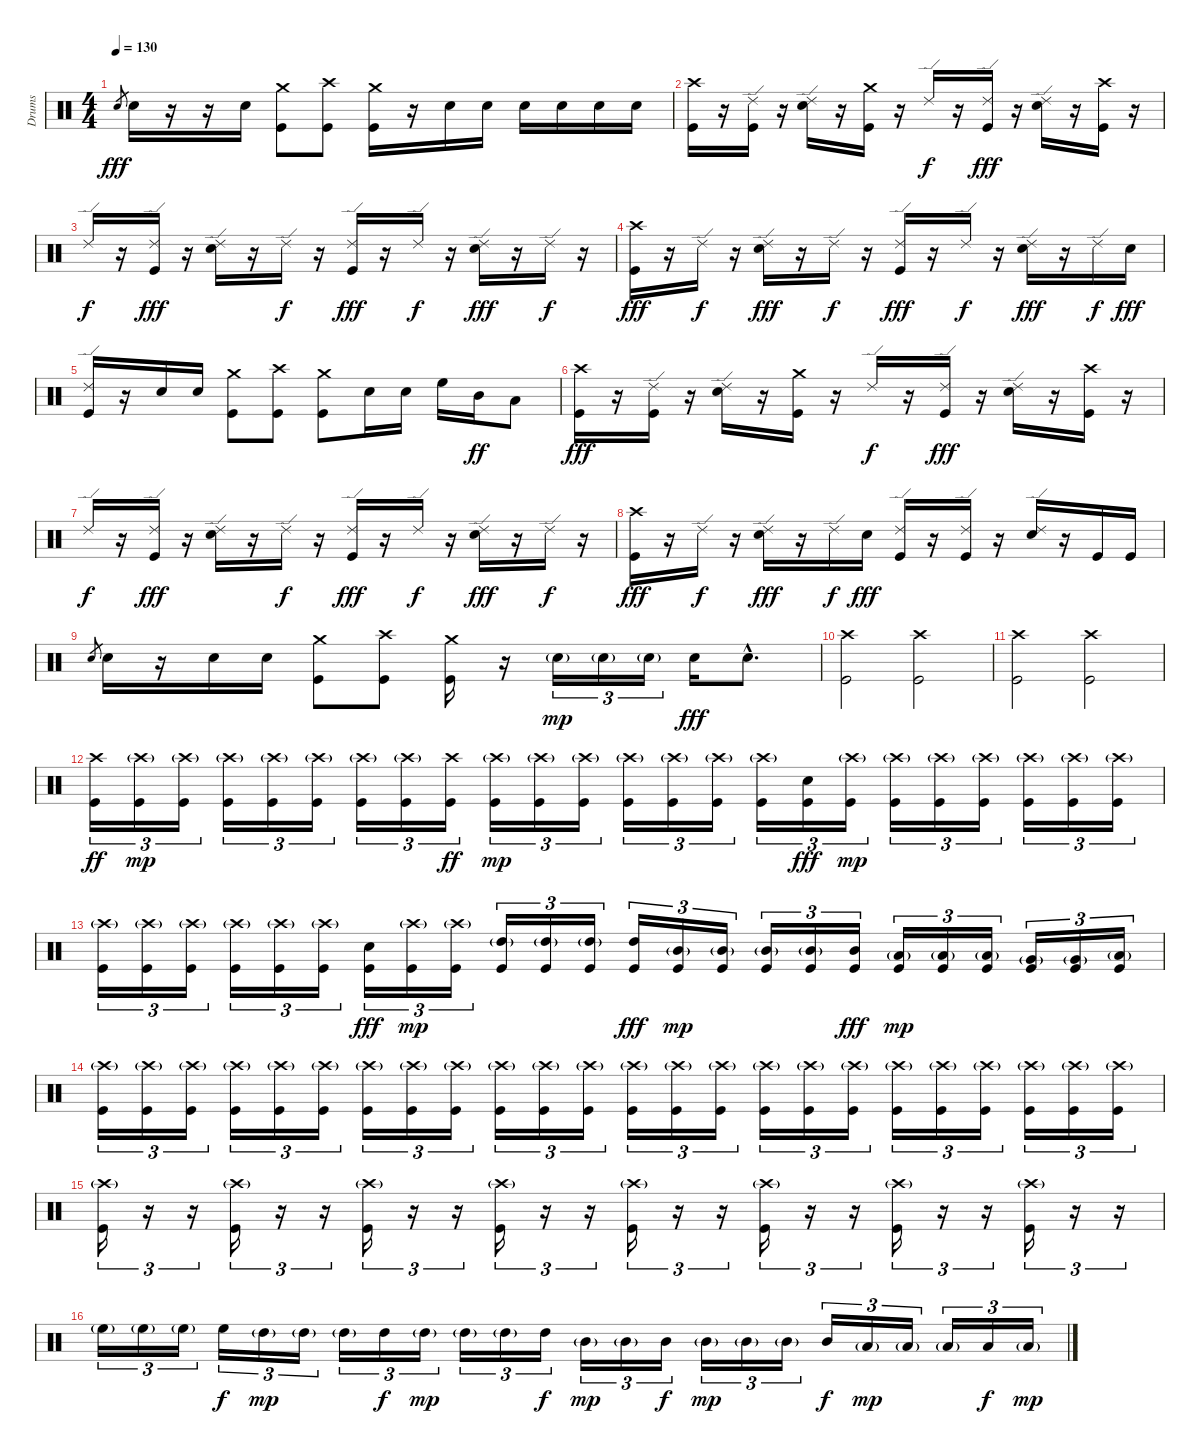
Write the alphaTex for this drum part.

\track ("Drums" "Drums") {instrument percussion}
\staff {score}
\articulation defaults
\ts (4 4)
\tempo 130
\clef neutral
\ks c "Electric Snare (hit)".8{gr dy fff} "Electric Snare (hit)".16
r.16 r.16 "Electric Snare (hit)".16 ("Kick (hit)" "Crash medium (hit)").8 ("Kick (hit)" "Crash high (hit)").8 ("Kick (hit)" "Crash medium (hit)").16 r.16 "Electric Snare (hit)".16 "Electric Snare (hit)".16 "Electric Snare (hit)".16 "Electric Snare (hit)".16 "Electric Snare (hit)".16 "Electric Snare (hit)".16 |
("Kick (hit)" "Crash high (hit)").16 r.16 ("Kick (hit)" "Ride (edge) 2").16 r.16 ("Electric Snare (hit)" "Ride (edge) 2").16 r.16 ("Kick (hit)" "Crash medium (hit)").16 r.16 "Ride (edge) 2".16{dy f} r.16 ("Kick (hit)" "Ride (edge) 2").16{dy fff} r.16 ("Electric Snare (hit)" "Ride (edge) 2").16 r.16 ("Kick (hit)" "Crash high (hit)").16 r.16 |
"Ride (edge) 2".16{dy f} r.16 ("Kick (hit)" "Ride (edge) 2").16{dy fff} r.16 ("Electric Snare (hit)" "Ride (edge) 2").16 r.16 "Ride (edge) 2".16{dy f} r.16 ("Kick (hit)" "Ride (edge) 2").16{dy fff} r.16 "Ride (edge) 2".16{dy f} r.16 ("Electric Snare (hit)" "Ride (edge) 2").16{dy fff} r.16 "Ride (edge) 2".16{dy f} r.16 |
("Kick (hit)" "Crash high (hit)").16{dy fff} r.16 "Ride (edge) 2".16{dy f} r.16 ("Electric Snare (hit)" "Ride (edge) 2").16{dy fff} r.16 "Ride (edge) 2".16{dy f} r.16 ("Kick (hit)" "Ride (edge) 2").16{dy fff} r.16 "Ride (edge) 2".16{dy f} r.16 ("Electric Snare (hit)" "Ride (edge) 2").16{dy fff} r.16 "Ride (edge) 2".16{dy f} "Electric Snare (hit)".16{dy fff} |
("Kick (hit)" "Ride (edge) 2").16 r.16 "Electric Snare (hit)".16 "Electric Snare (hit)".16 ("Kick (hit)" "Crash medium (hit)").8 ("Kick (hit)" "Crash high (hit)").8 ("Kick (hit)" "Crash medium (hit)").8 "Electric Snare (hit)".16 "Electric Snare (hit)".16 "High Floor Tom (hit)".16 "Mid Tom (hit)".16{dy ff} "Low Tom (hit)".8 |
("Kick (hit)" "Crash high (hit)").16{dy fff} r.16 ("Kick (hit)" "Ride (edge) 2").16 r.16 ("Electric Snare (hit)" "Ride (edge) 2").16 r.16 ("Kick (hit)" "Crash medium (hit)").16 r.16 "Ride (edge) 2".16{dy f} r.16 ("Kick (hit)" "Ride (edge) 2").16{dy fff} r.16 ("Electric Snare (hit)" "Ride (edge) 2").16 r.16 ("Kick (hit)" "Crash high (hit)").16 r.16 |
"Ride (edge) 2".16{dy f} r.16 ("Kick (hit)" "Ride (edge) 2").16{dy fff} r.16 ("Electric Snare (hit)" "Ride (edge) 2").16 r.16 "Ride (edge) 2".16{dy f} r.16 ("Kick (hit)" "Ride (edge) 2").16{dy fff} r.16 "Ride (edge) 2".16{dy f} r.16 ("Electric Snare (hit)" "Ride (edge) 2").16{dy fff} r.16 "Ride (edge) 2".16{dy f} r.16 |
("Kick (hit)" "Crash high (hit)").16{dy fff} r.16 "Ride (edge) 2".16{dy f} r.16 ("Electric Snare (hit)" "Ride (edge) 2").16{dy fff} r.16 "Ride (edge) 2".16{dy f} "Electric Snare (hit)".16{dy fff} ("Kick (hit)" "Ride (edge) 2").16 r.16 ("Kick (hit)" "Ride (edge) 2").16 r.16 ("Electric Snare (hit)" "Ride (edge) 2").16 r.16 "Kick (hit)".16 "Kick (hit)".16 |
"Electric Snare (hit)".8{gr} "Electric Snare (hit)".16 r.16 "Electric Snare (hit)".16 "Electric Snare (hit)".16 ("Kick (hit)" "Crash medium (hit)").8 ("Kick (hit)" "Crash high (hit)").8 ("Kick (hit)" "Crash medium (hit)").16 r.16 "Electric Snare (hit)"{g}.16{tu (3 2) dy mp} "Electric Snare (hit)"{g}.16{tu (3 2)} "Electric Snare (hit)"{g}.16{tu (3 2)} "Electric Snare (hit)".16{dy fff} "Electric Snare (hit)"{hac}.8{d} |
("Kick (hit)" "Crash high (hit)").2 ("Kick (hit)" "Crash high (hit)").2 |
("Kick (hit)" "Crash high (hit)").2 ("Kick (hit)" "Crash high (hit)").2 |
("Kick (hit)" "Crash high (hit)").16{tu (3 2) dy ff} ("Kick (hit)" "Crash high (hit)"{g}).16{tu (3 2) dy mp} ("Kick (hit)" "Crash high (hit)"{g}).16{tu (3 2)} ("Kick (hit)" "Crash high (hit)"{g}).16{tu (3 2)} ("Kick (hit)" "Crash high (hit)"{g}).16{tu (3 2)} ("Kick (hit)" "Crash high (hit)"{g}).16{tu (3 2)} ("Kick (hit)" "Crash high (hit)"{g}).16{tu (3 2)} ("Kick (hit)" "Crash high (hit)"{g}).16{tu (3 2)} ("Kick (hit)" "Crash high (hit)").16{tu (3 2) dy ff} ("Kick (hit)" "Crash high (hit)"{g}).16{tu (3 2) dy mp} ("Kick (hit)" "Crash high (hit)"{g}).16{tu (3 2)} ("Kick (hit)" "Crash high (hit)"{g}).16{tu (3 2)} ("Kick (hit)" "Crash high (hit)"{g}).16{tu (3 2)} ("Kick (hit)" "Crash high (hit)"{g}).16{tu (3 2)} ("Kick (hit)" "Crash high (hit)"{g}).16{tu (3 2)} ("Kick (hit)" "Crash high (hit)"{g}).16{tu (3 2)} ("Kick (hit)" "Electric Snare (hit)").16{tu (3 2) dy fff} ("Kick (hit)" "Crash high (hit)"{g}).16{tu (3 2) dy mp} ("Kick (hit)" "Crash high (hit)"{g}).16{tu (3 2)} ("Kick (hit)" "Crash high (hit)"{g}).16{tu (3 2)} ("Kick (hit)" "Crash high (hit)"{g}).16{tu (3 2)} ("Kick (hit)" "Crash high (hit)"{g}).16{tu (3 2)} ("Kick (hit)" "Crash high (hit)"{g}).16{tu (3 2)} ("Kick (hit)" "Crash high (hit)"{g}).16{tu (3 2)} |
("Kick (hit)" "Crash high (hit)"{g}).16{tu (3 2)} ("Kick (hit)" "Crash high (hit)"{g}).16{tu (3 2)} ("Kick (hit)" "Crash high (hit)"{g}).16{tu (3 2)} ("Kick (hit)" "Crash high (hit)"{g}).16{tu (3 2)} ("Kick (hit)" "Crash high (hit)"{g}).16{tu (3 2)} ("Kick (hit)" "Crash high (hit)"{g}).16{tu (3 2)} ("Kick (hit)" "Electric Snare (hit)").16{tu (3 2) dy fff} ("Kick (hit)" "Crash high (hit)"{g}).16{tu (3 2) dy mp} ("Kick (hit)" "Crash high (hit)"{g}).16{tu (3 2)} ("Kick (hit)" "High Tom (hit)"{g}).16{tu (3 2)} ("Kick (hit)" "High Tom (hit)"{g}).16{tu (3 2)} ("Kick (hit)" "High Tom (hit)"{g}).16{tu (3 2)} ("Kick (hit)" "High Tom (hit)").16{tu (3 2) dy fff} ("Kick (hit)" "Mid Tom (hit)"{g}).16{tu (3 2) dy mp} ("Kick (hit)" "Mid Tom (hit)"{g}).16{tu (3 2)} ("Kick (hit)" "Mid Tom (hit)"{g}).16{tu (3 2)} ("Kick (hit)" "Mid Tom (hit)"{g}).16{tu (3 2)} ("Kick (hit)" "Mid Tom (hit)").16{tu (3 2) dy fff} ("Kick (hit)" "Low Tom (hit)"{g}).16{tu (3 2) dy mp} ("Kick (hit)" "Low Tom (hit)"{g}).16{tu (3 2)} ("Kick (hit)" "Low Tom (hit)"{g}).16{tu (3 2)} ("Kick (hit)" "Very Low Tom (hit)"{g}).16{tu (3 2)} ("Kick (hit)" "Very Low Tom (hit)"{g}).16{tu (3 2)} ("Kick (hit)" "Low Floor Tom (hit)"{g}).16{tu (3 2)} |
("Kick (hit)" "Crash high (hit)"{g}).16{tu (3 2)} ("Kick (hit)" "Crash high (hit)"{g}).16{tu (3 2)} ("Kick (hit)" "Crash high (hit)"{g}).16{tu (3 2)} ("Kick (hit)" "Crash high (hit)"{g}).16{tu (3 2)} ("Kick (hit)" "Crash high (hit)"{g}).16{tu (3 2)} ("Kick (hit)" "Crash high (hit)"{g}).16{tu (3 2)} ("Kick (hit)" "Crash high (hit)"{g}).16{tu (3 2)} ("Kick (hit)" "Crash high (hit)"{g}).16{tu (3 2)} ("Kick (hit)" "Crash high (hit)"{g}).16{tu (3 2)} ("Kick (hit)" "Crash high (hit)"{g}).16{tu (3 2)} ("Kick (hit)" "Crash high (hit)"{g}).16{tu (3 2)} ("Kick (hit)" "Crash high (hit)"{g}).16{tu (3 2)} ("Kick (hit)" "Crash high (hit)"{g}).16{tu (3 2)} ("Kick (hit)" "Crash high (hit)"{g}).16{tu (3 2)} ("Kick (hit)" "Crash high (hit)"{g}).16{tu (3 2)} ("Kick (hit)" "Crash high (hit)"{g}).16{tu (3 2)} ("Kick (hit)" "Crash high (hit)"{g}).16{tu (3 2)} ("Kick (hit)" "Crash high (hit)"{g}).16{tu (3 2)} ("Kick (hit)" "Crash high (hit)"{g}).16{tu (3 2)} ("Kick (hit)" "Crash high (hit)"{g}).16{tu (3 2)} ("Kick (hit)" "Crash high (hit)"{g}).16{tu (3 2)} ("Kick (hit)" "Crash high (hit)"{g}).16{tu (3 2)} ("Kick (hit)" "Crash high (hit)"{g}).16{tu (3 2)} ("Kick (hit)" "Crash high (hit)"{g}).16{tu (3 2)} |
("Kick (hit)" "Crash high (hit)"{g}).16{tu (3 2)} r.16{tu (3 2)} r.16{tu (3 2)} ("Kick (hit)" "Crash high (hit)"{g}).16{tu (3 2)} r.16{tu (3 2)} r.16{tu (3 2)} ("Kick (hit)" "Crash high (hit)"{g}).16{tu (3 2)} r.16{tu (3 2)} r.16{tu (3 2)} ("Kick (hit)" "Crash high (hit)"{g}).16{tu (3 2)} r.16{tu (3 2)} r.16{tu (3 2)} ("Kick (hit)" "Crash high (hit)"{g}).16{tu (3 2)} r.16{tu (3 2)} r.16{tu (3 2)} ("Kick (hit)" "Crash high (hit)"{g}).16{tu (3 2)} r.16{tu (3 2)} r.16{tu (3 2)} ("Kick (hit)" "Crash high (hit)"{g}).16{tu (3 2)} r.16{tu (3 2)} r.16{tu (3 2)} ("Kick (hit)" "Crash high (hit)"{g}).16{tu (3 2)} r.16{tu (3 2)} r.16{tu (3 2)} |
"High Floor Tom (hit)"{g}.16{tu (3 2)} "High Floor Tom (hit)"{g}.16{tu (3 2)} "High Floor Tom (hit)"{g}.16{tu (3 2)} "High Floor Tom (hit)".16{tu (3 2) dy f} "High Tom (hit)"{g}.16{tu (3 2) dy mp} "High Tom (hit)"{g}.16{tu (3 2)} "High Tom (hit)"{g}.16{tu (3 2)} "High Tom (hit)".16{tu (3 2) dy f} "High Tom (hit)"{g}.16{tu (3 2) dy mp} "High Tom (hit)"{g}.16{tu (3 2)} "High Tom (hit)"{g}.16{tu (3 2)} "High Tom (hit)".16{tu (3 2) dy f} "Mid Tom (hit)"{g}.16{tu (3 2) dy mp} "Mid Tom (hit)"{g}.16{tu (3 2)} "Mid Tom (hit)".16{tu (3 2) dy f} "Mid Tom (hit)"{g}.16{tu (3 2) dy mp} "Mid Tom (hit)"{g}.16{tu (3 2)} "Mid Tom (hit)"{g}.16{tu (3 2)} "Mid Tom (hit)".16{tu (3 2) dy f} "Low Tom (hit)"{g}.16{tu (3 2) dy mp} "Low Tom (hit)"{g}.16{tu (3 2)} "Low Tom (hit)"{g}.16{tu (3 2)} "Low Tom (hit)".16{tu (3 2) dy f} "Low Tom (hit)"{g}.16{tu (3 2) dy mp}
